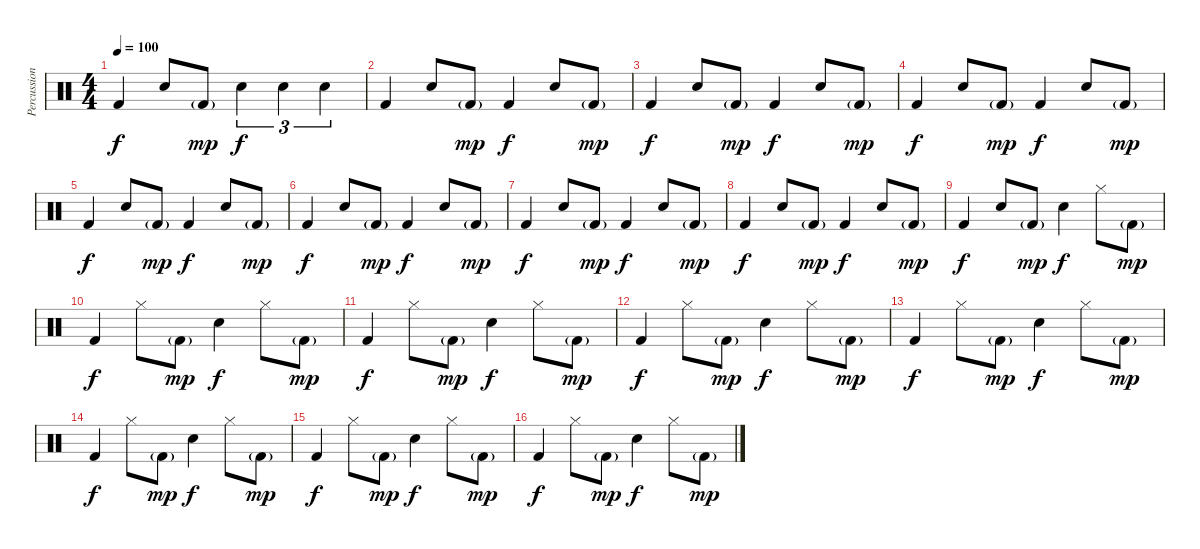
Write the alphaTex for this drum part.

\track ("Percussion" "Percussion") {instrument percussion}
\staff {score}
\articulation defaults
\ts (4 4)
\tempo 100
\clef neutral
\ks c "Kick (hit) 2".4{dy f} "Snare (hit) 2".8 "Kick (hit) 2"{g}.8{dy mp} "Snare (hit) 2".4{tu (3 2) dy f} "Snare (hit) 2".4{tu (3 2)} "Snare (hit) 2".4{tu (3 2)}
|
"Kick (hit) 2".4 "Snare (hit) 2".8 "Kick (hit) 2"{g}.8{dy mp} "Kick (hit) 2".4{dy f} "Snare (hit) 2".8 "Kick (hit) 2"{g}.8{dy mp} |
"Kick (hit) 2".4{dy f} "Snare (hit) 2".8 "Kick (hit) 2"{g}.8{dy mp} "Kick (hit) 2".4{dy f} "Snare (hit) 2".8 "Kick (hit) 2"{g}.8{dy mp} |
"Kick (hit) 2".4{dy f} "Snare (hit) 2".8 "Kick (hit) 2"{g}.8{dy mp} "Kick (hit) 2".4{dy f} "Snare (hit) 2".8 "Kick (hit) 2"{g}.8{dy mp} |
"Kick (hit) 2".4{dy f} "Snare (hit) 2".8 "Kick (hit) 2"{g}.8{dy mp} "Kick (hit) 2".4{dy f} "Snare (hit) 2".8 "Kick (hit) 2"{g}.8{dy mp} |
"Kick (hit) 2".4{dy f} "Snare (hit) 2".8 "Kick (hit) 2"{g}.8{dy mp} "Kick (hit) 2".4{dy f} "Snare (hit) 2".8 "Kick (hit) 2"{g}.8{dy mp} |
"Kick (hit) 2".4{dy f} "Snare (hit) 2".8 "Kick (hit) 2"{g}.8{dy mp} "Kick (hit) 2".4{dy f} "Snare (hit) 2".8 "Kick (hit) 2"{g}.8{dy mp} |
"Kick (hit) 2".4{dy f} "Snare (hit) 2".8 "Kick (hit) 2"{g}.8{dy mp} "Kick (hit) 2".4{dy f} "Snare (hit) 2".8 "Kick (hit) 2"{g}.8{dy mp} |
"Kick (hit) 2".4{dy f} "Snare (hit) 2".8 "Kick (hit) 2"{g}.8{dy mp} "Snare (hit) 2".4{dy f} "Hi-Hat (closed)".8 "Kick (hit) 2"{g}.8{dy mp} |
"Kick (hit) 2".4{dy f} "Hi-Hat (closed)".8 "Kick (hit) 2"{g}.8{dy mp} "Snare (hit) 2".4{dy f} "Hi-Hat (closed)".8 "Kick (hit) 2"{g}.8{dy mp} |
"Kick (hit) 2".4{dy f} "Hi-Hat (closed)".8 "Kick (hit) 2"{g}.8{dy mp} "Snare (hit) 2".4{dy f} "Hi-Hat (closed)".8 "Kick (hit) 2"{g}.8{dy mp} |
"Kick (hit) 2".4{dy f} "Hi-Hat (closed)".8 "Kick (hit) 2"{g}.8{dy mp} "Snare (hit) 2".4{dy f} "Hi-Hat (closed)".8 "Kick (hit) 2"{g}.8{dy mp} |
"Kick (hit) 2".4{dy f} "Hi-Hat (closed)".8 "Kick (hit) 2"{g}.8{dy mp} "Snare (hit) 2".4{dy f} "Hi-Hat (closed)".8 "Kick (hit) 2"{g}.8{dy mp} |
"Kick (hit) 2".4{dy f} "Hi-Hat (closed)".8 "Kick (hit) 2"{g}.8{dy mp} "Snare (hit) 2".4{dy f} "Hi-Hat (closed)".8 "Kick (hit) 2"{g}.8{dy mp} |
"Kick (hit) 2".4{dy f} "Hi-Hat (closed)".8 "Kick (hit) 2"{g}.8{dy mp} "Snare (hit) 2".4{dy f} "Hi-Hat (closed)".8 "Kick (hit) 2"{g}.8{dy mp} |
"Kick (hit) 2".4{dy f} "Hi-Hat (closed)".8 "Kick (hit) 2"{g}.8{dy mp} "Snare (hit) 2".4{dy f} "Hi-Hat (closed)".8 "Kick (hit) 2"{g}.8{dy mp}
